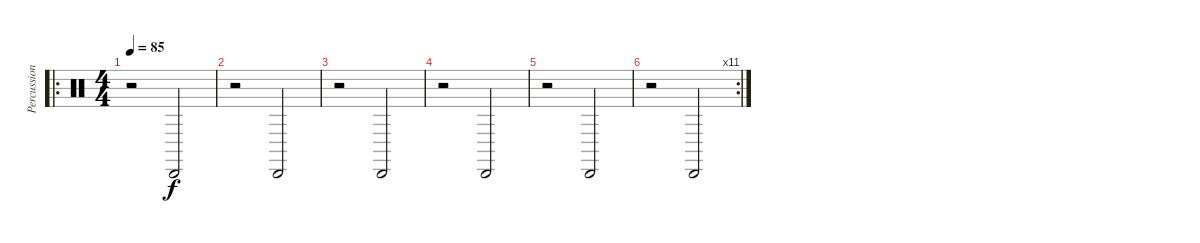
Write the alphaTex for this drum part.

\track ("Percussions" "Percussion") {instrument percussion}
\staff {score}
\articulation defaults
\ro
\ts (4 4)
\tempo 85
\clef neutral
\ks c
r.2{dy f} "Cabasa (hit)".2 |
r.2 "Cabasa (hit)".2 |
r.2 "Cabasa (hit)".2 |
r.2 "Cabasa (hit)".2 |
r.2 "Cabasa (hit)".2 |
\rc 11
r.2 "Cabasa (hit)".2
